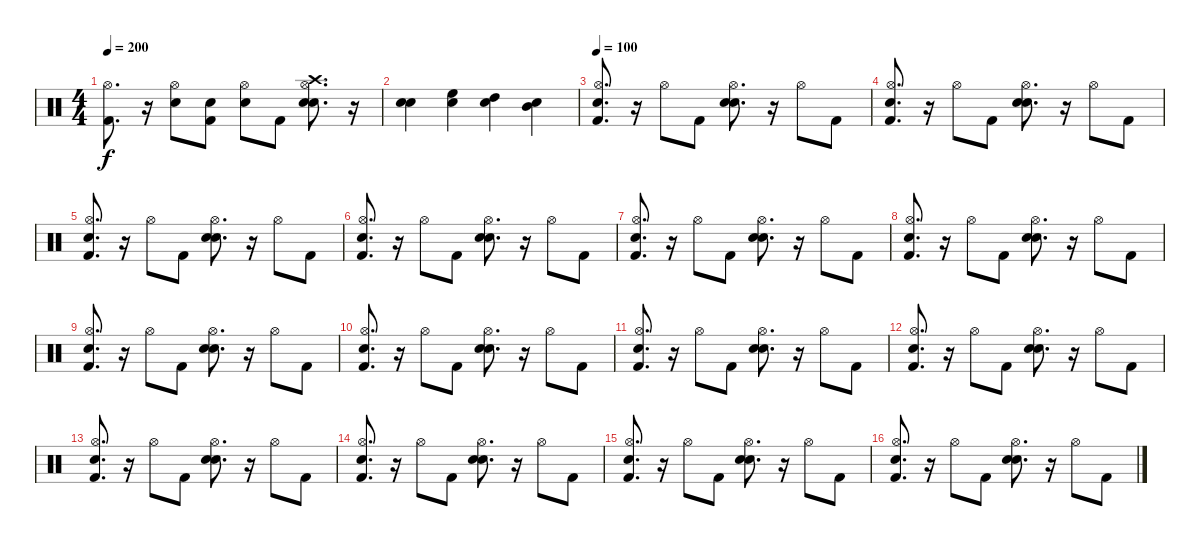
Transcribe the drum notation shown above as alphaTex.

\track "" {instrument percussion}
\staff {score}
\articulation defaults
\ts (4 4)
\tempo 200
\clef neutral
\ks c
("Kick (hit) 2" "Hi-Hat (open)").8{d dy f} r.16 ("Snare (hit) 2" "Hi-Hat (open)").8 ("Snare (hit)" "Kick (hit) 2").8 ("Snare (hit)" "Hi-Hat (open)").8 "Kick (hit) 2".8 ("Snare (hit)" "Snare (hit) 2" "Hi-Hat (open)" "Crash high (hit)").8{d} r.16 |
("Snare (hit)" "Snare (hit) 2").4 ("Snare (hit)" "High Floor Tom (hit)").4 ("Snare (hit)" "High Tom (hit)").4 ("Snare (hit)" "Mid Tom (hit)").4 |
\tempo 100
("Snare (hit)" "Kick (hit) 2" "Hi-Hat (open)").8{d} r.16 "Hi-Hat (open)".8 "Kick (hit) 2".8 ("Snare (hit)" "Snare (hit) 2" "Hi-Hat (open)").8{d} r.16 "Hi-Hat (open)".8 "Kick (hit) 2".8 |
("Snare (hit)" "Kick (hit) 2" "Hi-Hat (open)").8{d} r.16 "Hi-Hat (open)".8 "Kick (hit) 2".8 ("Snare (hit)" "Snare (hit) 2" "Hi-Hat (open)").8{d} r.16 "Hi-Hat (open)".8 "Kick (hit) 2".8 |
("Snare (hit)" "Kick (hit) 2" "Hi-Hat (open)").8{d} r.16 "Hi-Hat (open)".8 "Kick (hit) 2".8 ("Snare (hit)" "Snare (hit) 2" "Hi-Hat (open)").8{d} r.16 "Hi-Hat (open)".8 "Kick (hit) 2".8 |
("Snare (hit)" "Kick (hit) 2" "Hi-Hat (open)").8{d} r.16 "Hi-Hat (open)".8 "Kick (hit) 2".8 ("Snare (hit)" "Snare (hit) 2" "Hi-Hat (open)").8{d} r.16 "Hi-Hat (open)".8 "Kick (hit) 2".8 |
("Snare (hit)" "Kick (hit) 2" "Hi-Hat (open)").8{d} r.16 "Hi-Hat (open)".8 "Kick (hit) 2".8 ("Snare (hit)" "Snare (hit) 2" "Hi-Hat (open)").8{d} r.16 "Hi-Hat (open)".8 "Kick (hit) 2".8 |
("Snare (hit)" "Kick (hit) 2" "Hi-Hat (open)").8{d} r.16 "Hi-Hat (open)".8 "Kick (hit) 2".8 ("Snare (hit)" "Snare (hit) 2" "Hi-Hat (open)").8{d} r.16 "Hi-Hat (open)".8 "Kick (hit) 2".8 |
("Snare (hit)" "Kick (hit) 2" "Hi-Hat (open)").8{d} r.16 "Hi-Hat (open)".8 "Kick (hit) 2".8 ("Snare (hit)" "Snare (hit) 2" "Hi-Hat (open)").8{d} r.16 "Hi-Hat (open)".8 "Kick (hit) 2".8 |
("Snare (hit)" "Kick (hit) 2" "Hi-Hat (open)").8{d} r.16 "Hi-Hat (open)".8 "Kick (hit) 2".8 ("Snare (hit)" "Snare (hit) 2" "Hi-Hat (open)").8{d} r.16 "Hi-Hat (open)".8 "Kick (hit) 2".8 |
("Snare (hit)" "Kick (hit) 2" "Hi-Hat (open)").8{d} r.16 "Hi-Hat (open)".8 "Kick (hit) 2".8 ("Snare (hit)" "Snare (hit) 2" "Hi-Hat (open)").8{d} r.16 "Hi-Hat (open)".8 "Kick (hit) 2".8 |
("Snare (hit)" "Kick (hit) 2" "Hi-Hat (open)").8{d} r.16 "Hi-Hat (open)".8 "Kick (hit) 2".8 ("Snare (hit)" "Snare (hit) 2" "Hi-Hat (open)").8{d} r.16 "Hi-Hat (open)".8 "Kick (hit) 2".8 |
("Snare (hit)" "Kick (hit) 2" "Hi-Hat (open)").8{d} r.16 "Hi-Hat (open)".8 "Kick (hit) 2".8 ("Snare (hit)" "Snare (hit) 2" "Hi-Hat (open)").8{d} r.16 "Hi-Hat (open)".8 "Kick (hit) 2".8 |
("Snare (hit)" "Kick (hit) 2" "Hi-Hat (open)").8{d} r.16 "Hi-Hat (open)".8 "Kick (hit) 2".8 ("Snare (hit)" "Snare (hit) 2" "Hi-Hat (open)").8{d} r.16 "Hi-Hat (open)".8 "Kick (hit) 2".8 |
("Snare (hit)" "Kick (hit) 2" "Hi-Hat (open)").8{d} r.16 "Hi-Hat (open)".8 "Kick (hit) 2".8 ("Snare (hit)" "Snare (hit) 2" "Hi-Hat (open)").8{d} r.16 "Hi-Hat (open)".8 "Kick (hit) 2".8 |
("Snare (hit)" "Kick (hit) 2" "Hi-Hat (open)").8{d} r.16 "Hi-Hat (open)".8 "Kick (hit) 2".8 ("Snare (hit)" "Snare (hit) 2" "Hi-Hat (open)").8{d} r.16 "Hi-Hat (open)".8 "Kick (hit) 2".8
